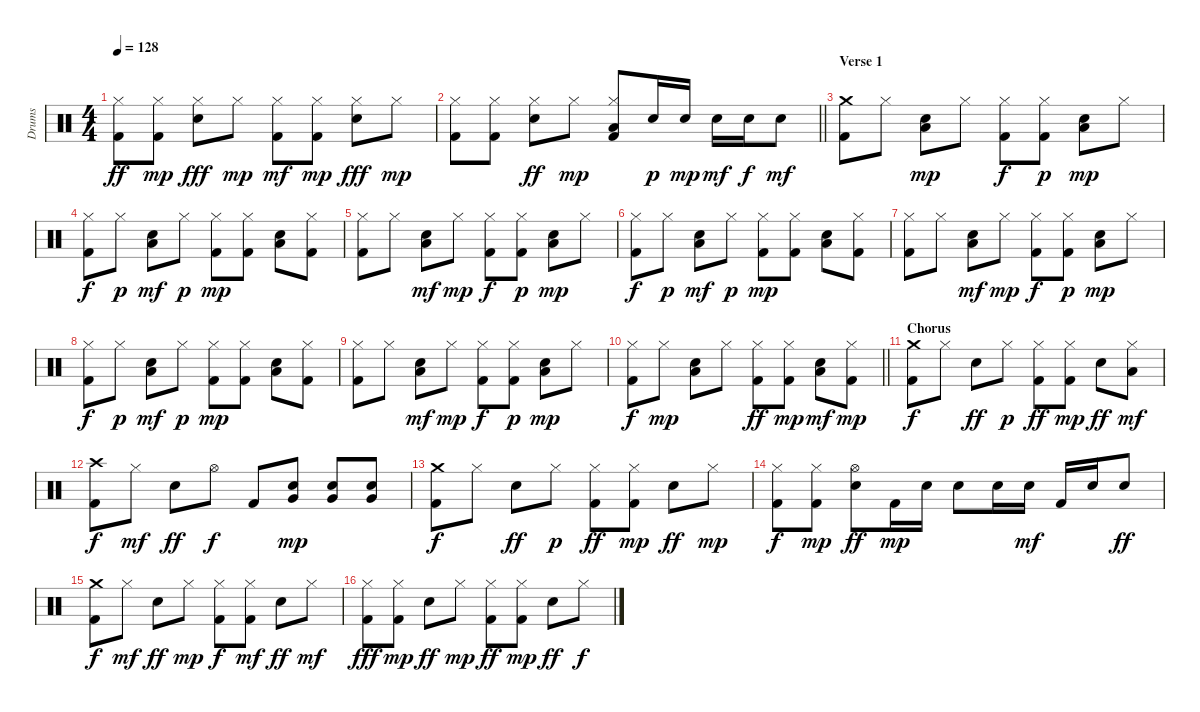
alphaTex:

\track ("Drums" "Drums") {instrument percussion}
\staff {score}
\articulation defaults
\ts (4 4)
\tempo 128
\clef neutral
\ks c
("Kick (hit) 2" "Hi-Hat (closed)").8{dy ff} ("Kick (hit) 2" "Hi-Hat (closed)").8{dy mp} ("Electric Snare (hit)" "Hi-Hat (closed)").8{dy fff} "Hi-Hat (closed)".8{dy mp} ("Kick (hit) 2" "Hi-Hat (closed)").8{dy mf} ("Kick (hit) 2" "Hi-Hat (closed)").8{dy mp} ("Electric Snare (hit)" "Hi-Hat (closed)").8{dy fff} "Hi-Hat (closed)".8{dy mp} |
\barLineRight lightlight
("Kick (hit) 2" "Hi-Hat (closed)").8 ("Kick (hit) 2" "Hi-Hat (closed)").8 ("Electric Snare (hit)" "Hi-Hat (closed)").8{dy ff} "Hi-Hat (closed)".8{dy mp} ("Kick (hit) 2" "Hi-Hat (closed)" "Low Tom (hit)").8 "Electric Snare (hit)".16{dy p} "Electric Snare (hit)".16{dy mp} "Electric Snare (hit)".16{dy mf} "Electric Snare (hit)".16{dy f} "Electric Snare (hit)".8{dy mf} |
\section ("" "Verse 1")
("Kick (hit) 2" "Crash medium (hit)").8 "Hi-Hat (closed)".8 ("Electric Snare (hit)" "Low Tom (hit)").8{dy mp} "Hi-Hat (closed)".8 ("Kick (hit) 2" "Hi-Hat (closed)").8{dy f} ("Kick (hit) 2" "Hi-Hat (closed)").8{dy p} ("Electric Snare (hit)" "Low Tom (hit)").8{dy mp} "Hi-Hat (closed)".8 |
("Kick (hit) 2" "Hi-Hat (closed)").8{dy f} "Hi-Hat (closed)".8{dy p} ("Electric Snare (hit)" "Low Tom (hit)").8{dy mf} "Hi-Hat (closed)".8{dy p} ("Kick (hit) 2" "Hi-Hat (closed)").8{dy mp} ("Kick (hit) 2" "Hi-Hat (closed)").8 ("Electric Snare (hit)" "Low Tom (hit)").8 ("Kick (hit) 2" "Hi-Hat (closed)").8 |
("Kick (hit) 2" "Hi-Hat (closed)").8 "Hi-Hat (closed)".8 ("Electric Snare (hit)" "Low Tom (hit)").8{dy mf} "Hi-Hat (closed)".8{dy mp} ("Kick (hit) 2" "Hi-Hat (closed)").8{dy f} ("Kick (hit) 2" "Hi-Hat (closed)").8{dy p} ("Electric Snare (hit)" "Low Tom (hit)").8{dy mp} "Hi-Hat (closed)".8 |
("Kick (hit) 2" "Hi-Hat (closed)").8{dy f} "Hi-Hat (closed)".8{dy p} ("Electric Snare (hit)" "Low Tom (hit)").8{dy mf} "Hi-Hat (closed)".8{dy p} ("Kick (hit) 2" "Hi-Hat (closed)").8{dy mp} ("Kick (hit) 2" "Hi-Hat (closed)").8 ("Electric Snare (hit)" "Low Tom (hit)").8 ("Kick (hit) 2" "Hi-Hat (closed)").8 |
("Kick (hit) 2" "Hi-Hat (closed)").8 "Hi-Hat (closed)".8 ("Electric Snare (hit)" "Low Tom (hit)").8{dy mf} "Hi-Hat (closed)".8{dy mp} ("Kick (hit) 2" "Hi-Hat (closed)").8{dy f} ("Kick (hit) 2" "Hi-Hat (closed)").8{dy p} ("Electric Snare (hit)" "Low Tom (hit)").8{dy mp} "Hi-Hat (closed)".8 |
("Kick (hit) 2" "Hi-Hat (closed)").8{dy f} "Hi-Hat (closed)".8{dy p} ("Electric Snare (hit)" "Low Tom (hit)").8{dy mf} "Hi-Hat (closed)".8{dy p} ("Kick (hit) 2" "Hi-Hat (closed)").8{dy mp} ("Kick (hit) 2" "Hi-Hat (closed)").8 ("Electric Snare (hit)" "Low Tom (hit)").8 ("Kick (hit) 2" "Hi-Hat (closed)").8 |
("Kick (hit) 2" "Hi-Hat (closed)").8 "Hi-Hat (closed)".8 ("Electric Snare (hit)" "Low Tom (hit)").8{dy mf} "Hi-Hat (closed)".8{dy mp} ("Kick (hit) 2" "Hi-Hat (closed)").8{dy f} ("Kick (hit) 2" "Hi-Hat (closed)").8{dy p} ("Electric Snare (hit)" "Low Tom (hit)").8{dy mp} "Hi-Hat (closed)".8 |
\barLineRight lightlight
("Kick (hit) 2" "Hi-Hat (closed)").8{dy f} "Hi-Hat (closed)".8{dy mp} ("Electric Snare (hit)" "Low Tom (hit)").8 "Hi-Hat (closed)".8 ("Kick (hit) 2" "Hi-Hat (closed)").8{dy ff} ("Kick (hit) 2" "Hi-Hat (closed)").8{dy mp} ("Electric Snare (hit)" "Low Tom (hit)").8{dy mf} ("Kick (hit) 2" "Hi-Hat (closed)").8{dy mp} |
\section ("" "Chorus")
("Kick (hit) 2" "Crash medium (hit)").8{dy f} "Hi-Hat (closed)".8 "Electric Snare (hit)".8{dy ff} "Hi-Hat (closed)".8{dy p} ("Kick (hit) 2" "Hi-Hat (closed)").8{dy ff} ("Kick (hit) 2" "Hi-Hat (closed)").8{dy mp} "Electric Snare (hit)".8{dy ff} ("Hi-Hat (closed)" "Low Tom (hit)").8{dy mf} |
("Kick (hit) 2" "Crash high (hit)").8{dy f} "Hi-Hat (closed)".8{dy mf} "Electric Snare (hit)".8{dy ff} "Hi-Hat (open)".8{dy f} "Kick (hit) 2".8 ("Electric Snare (hit)" "Very Low Tom (hit)").8{dy mp} ("Electric Snare (hit)" "Very Low Tom (hit)").8 ("Electric Snare (hit)" "Very Low Tom (hit)").8 |
("Kick (hit) 2" "Crash medium (hit)").8{dy f} "Hi-Hat (closed)".8 "Electric Snare (hit)".8{dy ff} "Hi-Hat (closed)".8{dy p} ("Kick (hit) 2" "Hi-Hat (closed)").8{dy ff} ("Kick (hit) 2" "Hi-Hat (closed)").8{dy mp} "Electric Snare (hit)".8{dy ff} "Hi-Hat (closed)".8{dy mp} |
("Kick (hit) 2" "Hi-Hat (closed)").8{dy f} ("Kick (hit) 2" "Hi-Hat (closed)").8{dy mp} ("Electric Snare (hit)" "Hi-Hat (open)").8{dy ff} "Kick (hit) 2".16{dy mp} "Electric Snare (hit)".16 "Electric Snare (hit)".8 "Electric Snare (hit)".16 "Electric Snare (hit)".16{dy mf} "Kick (hit) 2".16 "Electric Snare (hit)".16 "Electric Snare (hit)".8{dy ff} |
("Kick (hit) 2" "Crash medium (hit)").8{dy f} "Hi-Hat (closed)".8{dy mf} "Electric Snare (hit)".8{dy ff} "Hi-Hat (closed)".8{dy mp} ("Kick (hit) 2" "Hi-Hat (closed)").8{dy f} ("Kick (hit) 2" "Hi-Hat (closed)").8{dy mf} "Electric Snare (hit)".8{dy ff} "Hi-Hat (closed)".8{dy mf} |
("Kick (hit) 2" "Hi-Hat (closed)").8{dy fff} ("Kick (hit) 2" "Hi-Hat (closed)").8{dy mp} "Electric Snare (hit)".8{dy ff} "Hi-Hat (closed)".8{dy mp} ("Kick (hit) 2" "Hi-Hat (closed)").8{dy ff} ("Kick (hit) 2" "Hi-Hat (closed)").8{dy mp} "Electric Snare (hit)".8{dy ff} "Hi-Hat (closed)".8{dy f}
